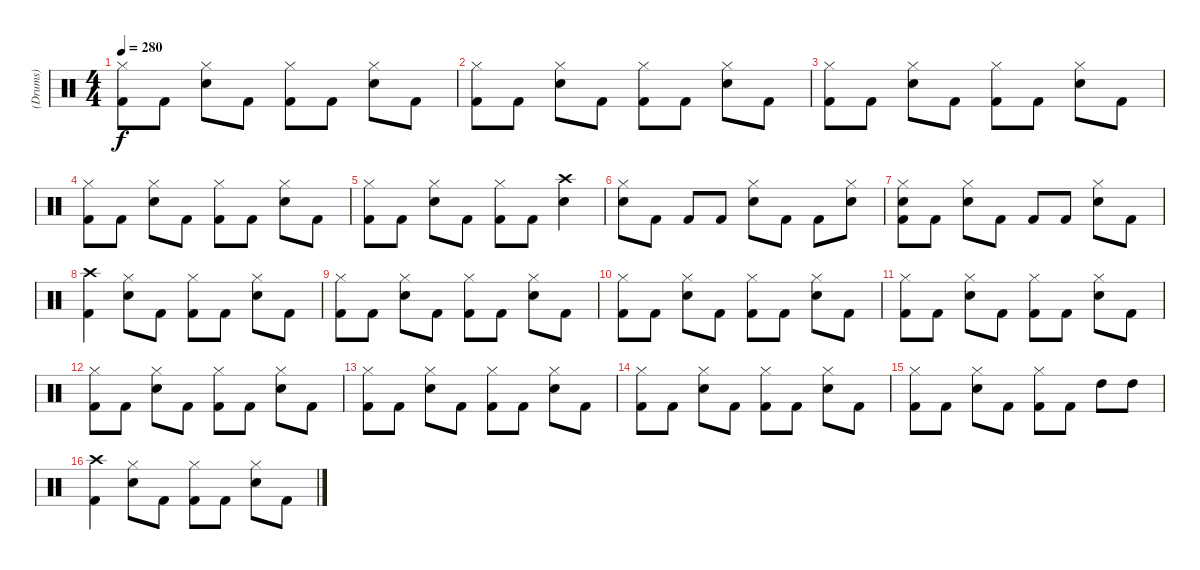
\track ("(Drums)" "(Drums)") {instrument percussion}
\staff {score}
\articulation defaults
\ts (4 4)
\tempo 280
\clef neutral
\ks c
("Hi-Hat (closed)" "Kick (hit) 2").8{dy f} "Kick (hit) 2".8 ("Hi-Hat (closed)" "Snare (hit) 2").8 "Kick (hit) 2".8 ("Hi-Hat (closed)" "Kick (hit) 2").8 "Kick (hit) 2".8 ("Hi-Hat (closed)" "Snare (hit) 2").8 "Kick (hit) 2".8 |
("Hi-Hat (closed)" "Kick (hit) 2").8 "Kick (hit) 2".8 ("Hi-Hat (closed)" "Snare (hit) 2").8 "Kick (hit) 2".8 ("Hi-Hat (closed)" "Kick (hit) 2").8 "Kick (hit) 2".8 ("Hi-Hat (closed)" "Snare (hit) 2").8 "Kick (hit) 2".8 |
("Hi-Hat (closed)" "Kick (hit) 2").8 "Kick (hit) 2".8 ("Hi-Hat (closed)" "Snare (hit) 2").8 "Kick (hit) 2".8 ("Hi-Hat (closed)" "Kick (hit) 2").8 "Kick (hit) 2".8 ("Hi-Hat (closed)" "Snare (hit) 2").8 "Kick (hit) 2".8 |
("Hi-Hat (closed)" "Kick (hit) 2").8 "Kick (hit) 2".8 ("Hi-Hat (closed)" "Snare (hit) 2").8 "Kick (hit) 2".8 ("Hi-Hat (closed)" "Kick (hit) 2").8 "Kick (hit) 2".8 ("Hi-Hat (closed)" "Snare (hit) 2").8 "Kick (hit) 2".8 |
("Hi-Hat (closed)" "Kick (hit) 2").8 "Kick (hit) 2".8 ("Hi-Hat (closed)" "Snare (hit) 2").8 "Kick (hit) 2".8 ("Hi-Hat (closed)" "Kick (hit) 2").8 "Kick (hit) 2".8 ("Snare (hit) 2" "Crash high (hit)").4 |
("Snare (hit) 2" "Hi-Hat (closed)").8 "Kick (hit) 2".8 "Kick (hit) 2".8 "Kick (hit) 2".8 ("Snare (hit) 2" "Hi-Hat (closed)").8 "Kick (hit) 2".8 "Kick (hit) 2".8 ("Snare (hit) 2" "Hi-Hat (closed)").8 |
("Kick (hit) 2" "Snare (hit) 2" "Hi-Hat (closed)").8 "Kick (hit) 2".8 ("Snare (hit) 2" "Hi-Hat (closed)").8 "Kick (hit) 2".8 "Kick (hit) 2".8 "Kick (hit) 2".8 ("Snare (hit) 2" "Hi-Hat (closed)").8 "Kick (hit) 2".8 |
("Kick (hit) 2" "Crash high (hit)").4 ("Hi-Hat (closed)" "Snare (hit) 2").8 "Kick (hit) 2".8 ("Hi-Hat (closed)" "Kick (hit) 2").8 "Kick (hit) 2".8 ("Hi-Hat (closed)" "Snare (hit) 2").8 "Kick (hit) 2".8 |
("Hi-Hat (closed)" "Kick (hit) 2").8 "Kick (hit) 2".8 ("Hi-Hat (closed)" "Snare (hit) 2").8 "Kick (hit) 2".8 ("Hi-Hat (closed)" "Kick (hit) 2").8 "Kick (hit) 2".8 ("Hi-Hat (closed)" "Snare (hit) 2").8 "Kick (hit) 2".8 |
("Hi-Hat (closed)" "Kick (hit) 2").8 "Kick (hit) 2".8 ("Hi-Hat (closed)" "Snare (hit) 2").8 "Kick (hit) 2".8 ("Hi-Hat (closed)" "Kick (hit) 2").8 "Kick (hit) 2".8 ("Hi-Hat (closed)" "Snare (hit) 2").8 "Kick (hit) 2".8 |
("Hi-Hat (closed)" "Kick (hit) 2").8 "Kick (hit) 2".8 ("Hi-Hat (closed)" "Snare (hit) 2").8 "Kick (hit) 2".8 ("Hi-Hat (closed)" "Kick (hit) 2").8 "Kick (hit) 2".8 ("Hi-Hat (closed)" "Snare (hit) 2").8 "Kick (hit) 2".8 |
("Hi-Hat (closed)" "Kick (hit) 2").8 "Kick (hit) 2".8 ("Hi-Hat (closed)" "Snare (hit) 2").8 "Kick (hit) 2".8 ("Hi-Hat (closed)" "Kick (hit) 2").8 "Kick (hit) 2".8 ("Hi-Hat (closed)" "Snare (hit) 2").8 "Kick (hit) 2".8 |
("Hi-Hat (closed)" "Kick (hit) 2").8 "Kick (hit) 2".8 ("Hi-Hat (closed)" "Snare (hit) 2").8 "Kick (hit) 2".8 ("Hi-Hat (closed)" "Kick (hit) 2").8 "Kick (hit) 2".8 ("Hi-Hat (closed)" "Snare (hit) 2").8 "Kick (hit) 2".8 |
("Hi-Hat (closed)" "Kick (hit) 2").8 "Kick (hit) 2".8 ("Hi-Hat (closed)" "Snare (hit) 2").8 "Kick (hit) 2".8 ("Hi-Hat (closed)" "Kick (hit) 2").8 "Kick (hit) 2".8 ("Hi-Hat (closed)" "Snare (hit) 2").8 "Kick (hit) 2".8 |
("Hi-Hat (closed)" "Kick (hit) 2").8 "Kick (hit) 2".8 ("Hi-Hat (closed)" "Snare (hit) 2").8 "Kick (hit) 2".8 ("Hi-Hat (closed)" "Kick (hit) 2").8 "Kick (hit) 2".8 "High Tom (hit)".8 "High Tom (hit)".8 |
("Kick (hit) 2" "Crash high (hit)").4 ("Hi-Hat (closed)" "Snare (hit) 2").8 "Kick (hit) 2".8 ("Hi-Hat (closed)" "Kick (hit) 2").8 "Kick (hit) 2".8 ("Hi-Hat (closed)" "Snare (hit) 2").8 "Kick (hit) 2".8
